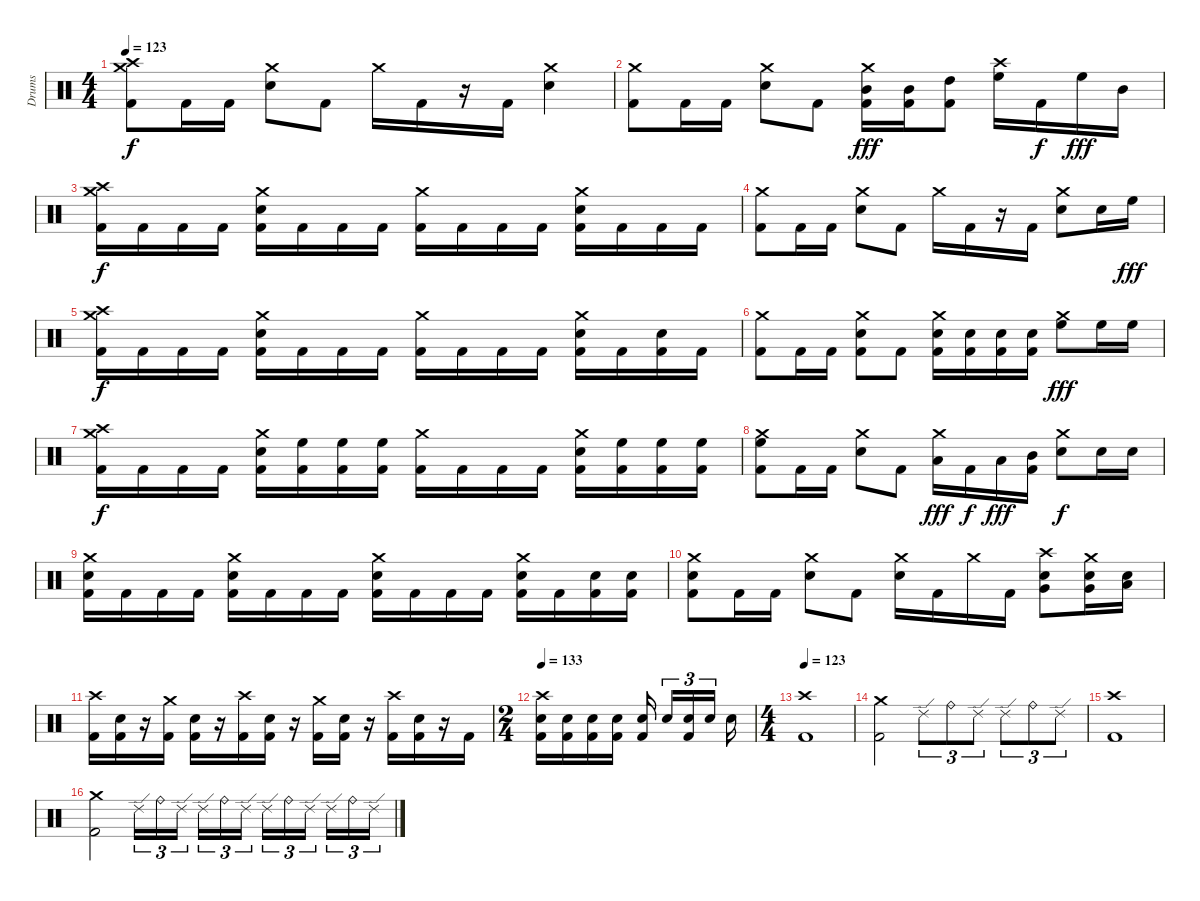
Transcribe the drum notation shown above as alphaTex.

\track ("Drums" "Drums") {instrument percussion}
\staff {score}
\articulation defaults
\ts (4 4)
\tempo 123
\clef neutral
\ks c
("Crash medium (hit)" "Crash high (hit)" "Kick (hit) 2").8{dy f} "Kick (hit) 2".16 "Kick (hit) 2".16 ("Crash medium (hit)" "Electric Snare (hit)").8 "Kick (hit) 2".8 "Crash medium (hit)".16 "Kick (hit) 2".16 r.16 "Kick (hit) 2".16 ("Crash medium (hit)" "Electric Snare (hit)").4 |
("Crash medium (hit)" "Kick (hit) 2").8 "Kick (hit) 2".16 "Kick (hit) 2".16 ("Crash medium (hit)" "Electric Snare (hit)").8 "Kick (hit) 2".8 ("Crash medium (hit)" "Mid Tom (hit)" "Kick (hit) 2").16{dy fff} ("Mid Tom (hit)" "Kick (hit) 2").16 ("High Tom (hit)" "Kick (hit) 2").8 ("Crash high (hit)" "High Floor Tom (hit)").16 "Kick (hit) 2".16{dy f} "High Floor Tom (hit)".16{dy fff} "Mid Tom (hit)".16 |
("Crash medium (hit)" "Crash high (hit)" "Kick (hit) 2").16{dy f} "Kick (hit) 2".16 "Kick (hit) 2".16 "Kick (hit) 2".16 ("Crash medium (hit)" "Electric Snare (hit)" "Kick (hit) 2").16 "Kick (hit) 2".16 "Kick (hit) 2".16 "Kick (hit) 2".16 ("Crash medium (hit)" "Kick (hit) 2").16 "Kick (hit) 2".16 "Kick (hit) 2".16 "Kick (hit) 2".16 ("Crash medium (hit)" "Electric Snare (hit)" "Kick (hit) 2").16 "Kick (hit) 2".16 "Kick (hit) 2".16 "Kick (hit) 2".16 |
("Crash medium (hit)" "Kick (hit) 2").8 "Kick (hit) 2".16 "Kick (hit) 2".16 ("Crash medium (hit)" "Electric Snare (hit)").8 "Kick (hit) 2".8 "Crash medium (hit)".16 "Kick (hit) 2".16 r.16 "Kick (hit) 2".16 ("Crash medium (hit)" "Electric Snare (hit)").8 "Electric Snare (hit)".16 "High Floor Tom (hit)".16{dy fff} |
("Crash medium (hit)" "Crash high (hit)" "Kick (hit) 2").16{dy f} "Kick (hit) 2".16 "Kick (hit) 2".16 "Kick (hit) 2".16 ("Crash medium (hit)" "Electric Snare (hit)" "Kick (hit) 2").16 "Kick (hit) 2".16 "Kick (hit) 2".16 "Kick (hit) 2".16 ("Crash medium (hit)" "Kick (hit) 2").16 "Kick (hit) 2".16 "Kick (hit) 2".16 "Kick (hit) 2".16 ("Crash medium (hit)" "Electric Snare (hit)" "Kick (hit) 2").16 "Kick (hit) 2".16 ("Electric Snare (hit)" "Kick (hit) 2").16 "Kick (hit) 2".16 |
("Crash medium (hit)" "Kick (hit) 2").8 "Kick (hit) 2".16 "Kick (hit) 2".16 ("Crash medium (hit)" "Electric Snare (hit)" "Kick (hit) 2").8 "Kick (hit) 2".8 ("Crash medium (hit)" "Electric Snare (hit)" "Kick (hit) 2").16 ("Electric Snare (hit)" "Kick (hit) 2").16 ("Electric Snare (hit)" "Kick (hit) 2").16 ("Electric Snare (hit)" "Kick (hit) 2").16 ("Crash medium (hit)" "High Floor Tom (hit)").8{dy fff} "High Floor Tom (hit)".16 "High Floor Tom (hit)".16 |
("Crash medium (hit)" "Crash high (hit)" "Kick (hit) 2").16{dy f} "Kick (hit) 2".16 "Kick (hit) 2".16 "Kick (hit) 2".16 ("Crash medium (hit)" "Electric Snare (hit)" "Kick (hit) 2").16 ("High Floor Tom (hit)" "Kick (hit) 2").16 ("High Floor Tom (hit)" "Kick (hit) 2").16 ("High Floor Tom (hit)" "Kick (hit) 2").16 ("Crash medium (hit)" "Kick (hit) 2").16 "Kick (hit) 2".16 "Kick (hit) 2".16 "Kick (hit) 2".16 ("Crash medium (hit)" "Electric Snare (hit)" "Kick (hit) 2").16 ("High Floor Tom (hit)" "Kick (hit) 2").16 ("High Floor Tom (hit)" "Kick (hit) 2").16 ("High Floor Tom (hit)" "Kick (hit) 2").16 |
("Crash medium (hit)" "High Floor Tom (hit)" "Kick (hit) 2").8 "Kick (hit) 2".16 "Kick (hit) 2".16 ("Crash medium (hit)" "Electric Snare (hit)").8 "Kick (hit) 2".8 ("Crash medium (hit)" "Low Tom (hit)").16{dy fff} "Kick (hit) 2".16{dy f} "Low Tom (hit)".16{dy fff} ("Mid Tom (hit)" "Kick (hit) 2").16 ("Crash medium (hit)" "Electric Snare (hit)").8{dy f} "Electric Snare (hit)".16 "Electric Snare (hit)".16 |
("Crash medium (hit)" "Electric Snare (hit)" "Kick (hit) 2").16 "Kick (hit) 2".16 "Kick (hit) 2".16 "Kick (hit) 2".16 ("Crash medium (hit)" "Electric Snare (hit)" "Kick (hit) 2").16 "Kick (hit) 2".16 "Kick (hit) 2".16 "Kick (hit) 2".16 ("Crash medium (hit)" "Electric Snare (hit)" "Kick (hit) 2").16 "Kick (hit) 2".16 "Kick (hit) 2".16 "Kick (hit) 2".16 ("Crash medium (hit)" "Electric Snare (hit)" "Kick (hit) 2").16 "Kick (hit) 2".16 ("Electric Snare (hit)" "Kick (hit) 2").16 ("Electric Snare (hit)" "Kick (hit) 2").16 |
("Crash medium (hit)" "Electric Snare (hit)" "Kick (hit) 2").8 "Kick (hit) 2".16 "Kick (hit) 2".16 ("Crash medium (hit)" "Electric Snare (hit)").8 "Kick (hit) 2".8 ("Crash medium (hit)" "Electric Snare (hit)").16 "Kick (hit) 2".16 "Crash medium (hit)".16 "Kick (hit) 2".16 ("Crash high (hit)" "Snare (hit) 2" "Very Low Tom (hit)").8 ("Crash medium (hit)" "Snare (hit) 2" "Very Low Tom (hit)").16 ("Snare (hit) 2" "Low Tom (hit)").16 |
("Crash high (hit)" "Kick (hit) 2").16 ("Snare (hit) 2" "Kick (hit) 2").16 r.16 ("Crash medium (hit)" "Kick (hit) 2").16 ("Snare (hit) 2" "Kick (hit) 2").16 r.16 ("Crash high (hit)" "Kick (hit) 2").16 ("Snare (hit) 2" "Kick (hit) 2").16 r.16 ("Crash medium (hit)" "Kick (hit) 2").16 ("Snare (hit) 2" "Kick (hit) 2").16 r.16 ("Crash high (hit)" "Kick (hit) 2").16 ("Snare (hit) 2" "Kick (hit) 2").16 r.16 "Kick (hit) 2".16 |
\ts (2 4)
\tempo 133
("Crash high (hit)" "Snare (hit) 2" "Kick (hit) 2").16 ("Snare (hit) 2" "Kick (hit) 2").16 ("Snare (hit) 2" "Kick (hit) 2").16 ("Snare (hit) 2" "Kick (hit) 2").16 ("Snare (hit) 2" "Kick (hit) 2").16 "Snare (hit) 2".16{tu (3 2)} ("Snare (hit) 2" "Kick (hit) 2").16{tu (3 2)} "Snare (hit) 2".16{tu (3 2)} "Snare (hit) 2".16 |
\ts (4 4)
\tempo 123
("Crash high (hit)" "Kick (hit) 2").1 |
("Crash medium (hit)" "Kick (hit) 2").2 "Ride (edge) 2".8{tu (3 2)} "Ride (bell)".8{tu (3 2)} "Ride (edge) 2".8{tu (3 2)} "Ride (edge) 2".8{tu (3 2)} "Ride (bell)".8{tu (3 2)} "Ride (edge) 2".8{tu (3 2)} |
("Crash high (hit)" "Kick (hit) 2").1 |
("Crash medium (hit)" "Kick (hit) 2").2 "Ride (edge) 2".16{tu (3 2)} "Ride (bell)".16{tu (3 2)} "Ride (edge) 2".16{tu (3 2)} "Ride (edge) 2".16{tu (3 2)} "Ride (bell)".16{tu (3 2)} "Ride (edge) 2".16{tu (3 2)} "Ride (edge) 2".16{tu (3 2)} "Ride (bell)".16{tu (3 2)} "Ride (edge) 2".16{tu (3 2)} "Ride (edge) 2".16{tu (3 2)} "Ride (bell)".16{tu (3 2)} "Ride (edge) 2".16{tu (3 2)}
